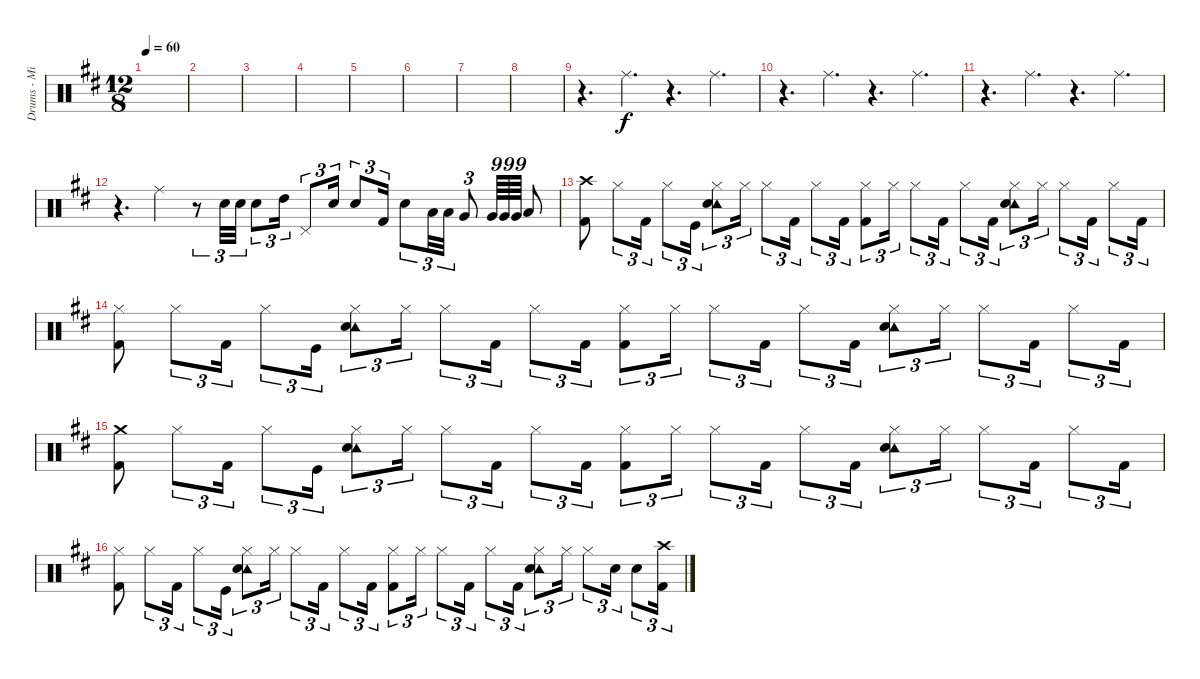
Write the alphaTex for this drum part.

\track ("Drums - Mike Portnoy" "Drums - Mi") {instrument percussion}
\staff {score}
\articulation defaults
\ts (12 8)
\tempo 60
\clef neutral
\ks d
|
|
|
|
|
\ks bminor
|
|
|
r.4{d} "Ride (middle)".4{d} r.4{d} "Ride (middle)".4{d} |
r.4{d} "Ride (middle)".4{d} r.4{d} "Ride (middle)".4{d} |
r.4{d} "Ride (middle)".4{d} r.4{d} "Ride (middle)".4{d} |
r.4{d} "Ride (middle)".4 r.8{tu (3 2)} "Snare (hit) 2".32{tu (3 2)} "Snare (hit) 2".32{tu (3 2)} "Snare (hit) 2".8{tu (3 2)} "High Tom (hit)".16{tu (3 2)} "Pedal Hi-Hat (hit)".8{tu (3 2)} "Snare (hit) 2".16{tu (3 2)} "Snare (hit) 2".8{tu (3 2)} "Kick (hit) 2".16{tu (3 2)} "Snare (hit) 2".8{tu (3 2)} "Low Tom (hit)".32{tu (3 2)} "Low Tom (hit)".32{tu (3 2)} "Very Low Tom (hit)".8{tu (3 2)} "Very Low Tom (hit)".64{tu (9 8)} "Very Low Tom (hit)".64{tu (9 8)} "Very Low Tom (hit)".64{tu (9 8)} "Low Floor Tom (hit)".8 |
("Crash high (hit)" "Kick (hit) 2").8 "Hi-Hat (closed)".8{tu (3 2)} "Kick (hit) 2".16{tu (3 2)} "Hi-Hat (closed)".8{tu (3 2)} "Kick (hit)".16{tu (3 2)} ("Hi-Hat (closed)" "Tambourine (hit)" "Snare (hit) 2").8{tu (3 2)} "Hi-Hat (closed)".16{tu (3 2)} "Hi-Hat (closed)".8{tu (3 2)} "Kick (hit) 2".16{tu (3 2)} "Hi-Hat (closed)".8{tu (3 2)} "Kick (hit) 2".16{tu (3 2)} ("Hi-Hat (closed)" "Kick (hit) 2").8{tu (3 2)} "Hi-Hat (closed)".16{tu (3 2)} "Hi-Hat (closed)".8{tu (3 2)} "Kick (hit) 2".16{tu (3 2)} "Hi-Hat (closed)".8{tu (3 2)} "Kick (hit) 2".16{tu (3 2)} ("Hi-Hat (closed)" "Tambourine (hit)" "Snare (hit) 2").8{tu (3 2)} "Hi-Hat (closed)".16{tu (3 2)} "Hi-Hat (closed)".8{tu (3 2)} "Kick (hit) 2".16{tu (3 2)} "Hi-Hat (closed)".8{tu (3 2)} "Kick (hit) 2".16{tu (3 2)} |
("Hi-Hat (closed)" "Kick (hit) 2").8 "Hi-Hat (closed)".8{tu (3 2)} "Kick (hit) 2".16{tu (3 2)} "Hi-Hat (closed)".8{tu (3 2)} "Kick (hit)".16{tu (3 2)} ("Hi-Hat (closed)" "Tambourine (hit)" "Snare (hit) 2").8{tu (3 2)} "Hi-Hat (closed)".16{tu (3 2)} "Hi-Hat (closed)".8{tu (3 2)} "Kick (hit) 2".16{tu (3 2)} "Hi-Hat (closed)".8{tu (3 2)} "Kick (hit) 2".16{tu (3 2)} ("Hi-Hat (closed)" "Kick (hit) 2").8{tu (3 2)} "Hi-Hat (closed)".16{tu (3 2)} "Hi-Hat (closed)".8{tu (3 2)} "Kick (hit) 2".16{tu (3 2)} "Hi-Hat (closed)".8{tu (3 2)} "Kick (hit) 2".16{tu (3 2)} ("Hi-Hat (closed)" "Tambourine (hit)" "Snare (hit) 2").8{tu (3 2)} "Hi-Hat (closed)".16{tu (3 2)} "Hi-Hat (closed)".8{tu (3 2)} "Kick (hit) 2".16{tu (3 2)} "Hi-Hat (closed)".8{tu (3 2)} "Kick (hit) 2".16{tu (3 2)} |
("Crash medium (hit)" "Kick (hit) 2").8 "Hi-Hat (closed)".8{tu (3 2)} "Kick (hit) 2".16{tu (3 2)} "Hi-Hat (closed)".8{tu (3 2)} "Kick (hit)".16{tu (3 2)} ("Hi-Hat (closed)" "Tambourine (hit)" "Snare (hit) 2").8{tu (3 2)} "Hi-Hat (closed)".16{tu (3 2)} "Hi-Hat (closed)".8{tu (3 2)} "Kick (hit) 2".16{tu (3 2)} "Hi-Hat (closed)".8{tu (3 2)} "Kick (hit) 2".16{tu (3 2)} ("Hi-Hat (closed)" "Kick (hit) 2").8{tu (3 2)} "Hi-Hat (closed)".16{tu (3 2)} "Hi-Hat (closed)".8{tu (3 2)} "Kick (hit) 2".16{tu (3 2)} "Hi-Hat (closed)".8{tu (3 2)} "Kick (hit) 2".16{tu (3 2)} ("Hi-Hat (closed)" "Tambourine (hit)" "Snare (hit) 2").8{tu (3 2)} "Hi-Hat (closed)".16{tu (3 2)} "Hi-Hat (closed)".8{tu (3 2)} "Kick (hit) 2".16{tu (3 2)} "Hi-Hat (closed)".8{tu (3 2)} "Kick (hit) 2".16{tu (3 2)} |
("Hi-Hat (closed)" "Kick (hit) 2").8 "Hi-Hat (closed)".8{tu (3 2)} "Kick (hit) 2".16{tu (3 2)} "Hi-Hat (closed)".8{tu (3 2)} "Kick (hit)".16{tu (3 2)} ("Hi-Hat (closed)" "Tambourine (hit)" "Snare (hit) 2").8{tu (3 2)} "Hi-Hat (closed)".16{tu (3 2)} "Hi-Hat (closed)".8{tu (3 2)} "Kick (hit) 2".16{tu (3 2)} "Hi-Hat (closed)".8{tu (3 2)} "Kick (hit) 2".16{tu (3 2)} ("Hi-Hat (closed)" "Kick (hit) 2").8{tu (3 2)} "Hi-Hat (closed)".16{tu (3 2)} "Hi-Hat (closed)".8{tu (3 2)} "Kick (hit) 2".16{tu (3 2)} "Hi-Hat (closed)".8{tu (3 2)} "Kick (hit) 2".16{tu (3 2)} ("Hi-Hat (closed)" "Tambourine (hit)" "Snare (hit) 2").8{tu (3 2)} "Hi-Hat (closed)".16{tu (3 2)} "Hi-Hat (closed)".8{tu (3 2)} "Snare (hit) 2".16{tu (3 2)} "Snare (hit) 2".8{tu (3 2)} ("Crash high (hit)" "Kick (hit) 2").16{tu (3 2)}
